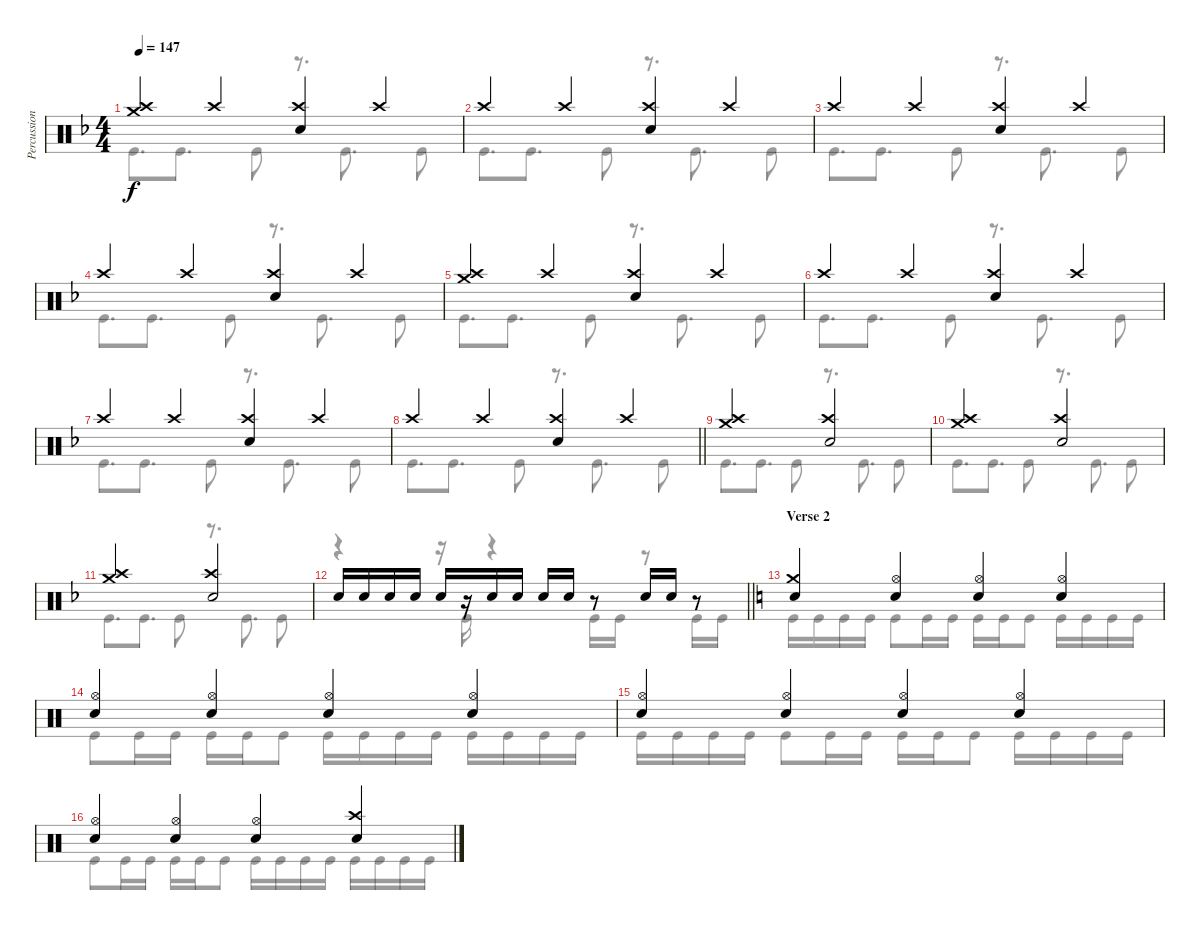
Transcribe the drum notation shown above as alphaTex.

\track ("Percussion" "Percussion") {instrument percussion}
\staff {score}
\articulation defaults
\voice
\ts (4 4)
\tempo 147
\clef neutral
\ks dminor
("Crash medium (hit)" "Crash high (hit)").4{dy f} "Crash high (hit)".4 ("Crash high (hit)" "Electric Snare (hit)").4 "Crash high (hit)".4 |
"Crash high (hit)".4 "Crash high (hit)".4 ("Crash high (hit)" "Electric Snare (hit)").4 "Crash high (hit)".4 |
"Crash high (hit)".4 "Crash high (hit)".4 ("Crash high (hit)" "Electric Snare (hit)").4 "Crash high (hit)".4 |
"Crash high (hit)".4 "Crash high (hit)".4 ("Crash high (hit)" "Electric Snare (hit)").4 "Crash high (hit)".4 |
("Crash medium (hit)" "Crash high (hit)").4 "Crash high (hit)".4 ("Crash high (hit)" "Electric Snare (hit)").4 "Crash high (hit)".4 |
"Crash high (hit)".4 "Crash high (hit)".4 ("Crash high (hit)" "Electric Snare (hit)").4 "Crash high (hit)".4 |
"Crash high (hit)".4 "Crash high (hit)".4 ("Crash high (hit)" "Electric Snare (hit)").4 "Crash high (hit)".4 |
\barLineRight lightlight "Crash high (hit)".4 "Crash high (hit)".4
("Crash high (hit)" "Electric Snare (hit)").4 "Crash high (hit)".4 |
\section ("" "")
("Crash medium (hit)" "Crash high (hit)").2 ("Crash high (hit)" "Electric Snare (hit)").2 |
("Crash medium (hit)" "Crash high (hit)").2 ("Crash high (hit)" "Electric Snare (hit)").2 |
("Crash medium (hit)" "Crash high (hit)").2 ("Crash high (hit)" "Electric Snare (hit)").2 |
\barLineRight lightlight "Electric Snare (hit)".16 "Electric Snare (hit)".16 "Electric Snare (hit)".16 "Electric Snare (hit)".16 "Electric Snare (hit)".16
r.16 "Electric Snare (hit)".16 "Electric Snare (hit)".16 "Electric Snare (hit)".16 "Electric Snare (hit)".16 r.8 "Electric Snare (hit)".16 "Electric Snare (hit)".16 r.8 |
\section ("" "Verse 2")
\ks aminor
("Crash medium (hit)" "Electric Snare (hit)").4 ("Hi-Hat (open)" "Electric Snare (hit)").4 ("Hi-Hat (open)" "Electric Snare (hit)").4 ("Hi-Hat (open)" "Electric Snare (hit)").4 |
("Hi-Hat (open)" "Electric Snare (hit)").4 ("Hi-Hat (open)" "Electric Snare (hit)").4 ("Hi-Hat (open)" "Electric Snare (hit)").4 ("Hi-Hat (open)" "Electric Snare (hit)").4 |
("Hi-Hat (open)" "Electric Snare (hit)").4 ("Hi-Hat (open)" "Electric Snare (hit)").4 ("Hi-Hat (open)" "Electric Snare (hit)").4 ("Hi-Hat (open)" "Electric Snare (hit)").4 |
("Hi-Hat (open)" "Electric Snare (hit)").4 ("Hi-Hat (open)" "Electric Snare (hit)").4 ("Hi-Hat (open)" "Electric Snare (hit)").4 ("Crash high (hit)" "Electric Snare (hit)").4
\voice
\clef neutral
\ottava regular
\simile none
\ks dminor "Kick (hit)".8{d dy f} "Kick (hit)".8{d} "Kick (hit)".8
r.8{d} "Kick (hit)".8{d} "Kick (hit)".8 |
"Kick (hit)".8{d} "Kick (hit)".8{d} "Kick (hit)".8 r.8{d} "Kick (hit)".8{d} "Kick (hit)".8 |
"Kick (hit)".8{d} "Kick (hit)".8{d} "Kick (hit)".8 r.8{d} "Kick (hit)".8{d} "Kick (hit)".8 |
"Kick (hit)".8{d} "Kick (hit)".8{d} "Kick (hit)".8 r.8{d} "Kick (hit)".8{d} "Kick (hit)".8 |
"Kick (hit)".8{d} "Kick (hit)".8{d} "Kick (hit)".8 r.8{d} "Kick (hit)".8{d} "Kick (hit)".8 |
"Kick (hit)".8{d} "Kick (hit)".8{d} "Kick (hit)".8 r.8{d} "Kick (hit)".8{d} "Kick (hit)".8 |
"Kick (hit)".8{d} "Kick (hit)".8{d} "Kick (hit)".8 r.8{d} "Kick (hit)".8{d} "Kick (hit)".8 |
\barLineRight lightlight "Kick (hit)".8{d} "Kick (hit)".8{d} "Kick (hit)".8
r.8{d} "Kick (hit)".8{d} "Kick (hit)".8 |
"Kick (hit)".8{d} "Kick (hit)".8{d} "Kick (hit)".8 r.8{d} "Kick (hit)".8{d} "Kick (hit)".8 |
"Kick (hit)".8{d} "Kick (hit)".8{d} "Kick (hit)".8 r.8{d} "Kick (hit)".8{d} "Kick (hit)".8 |
"Kick (hit)".8{d} "Kick (hit)".8{d} "Kick (hit)".8 r.8{d} "Kick (hit)".8{d} "Kick (hit)".8 |
\barLineRight lightlight
r.4 r.16 "Kick (hit)".16 r.4 "Kick (hit)".16 "Kick (hit)".16 r.8 "Kick (hit)".16 "Kick (hit)".16 |
\ks aminor "Kick (hit)".16 "Kick (hit)".16 "Kick (hit)".16 "Kick (hit)".16 "Kick (hit)".8 "Kick (hit)".16 "Kick (hit)".16 "Kick (hit)".16 "Kick (hit)".16 "Kick (hit)".8 "Kick (hit)".16 "Kick (hit)".16 "Kick (hit)".16 "Kick (hit)".16
|
"Kick (hit)".8 "Kick (hit)".16 "Kick (hit)".16 "Kick (hit)".16 "Kick (hit)".16 "Kick (hit)".8 "Kick (hit)".16 "Kick (hit)".16 "Kick (hit)".16 "Kick (hit)".16 "Kick (hit)".16 "Kick (hit)".16 "Kick (hit)".16 "Kick (hit)".16 |
"Kick (hit)".16 "Kick (hit)".16 "Kick (hit)".16 "Kick (hit)".16 "Kick (hit)".8 "Kick (hit)".16 "Kick (hit)".16 "Kick (hit)".16 "Kick (hit)".16 "Kick (hit)".8 "Kick (hit)".16 "Kick (hit)".16 "Kick (hit)".16 "Kick (hit)".16 |
"Kick (hit)".8 "Kick (hit)".16 "Kick (hit)".16 "Kick (hit)".16 "Kick (hit)".16 "Kick (hit)".8 "Kick (hit)".16 "Kick (hit)".16 "Kick (hit)".16 "Kick (hit)".16 "Kick (hit)".16 "Kick (hit)".16 "Kick (hit)".16 "Kick (hit)".16
